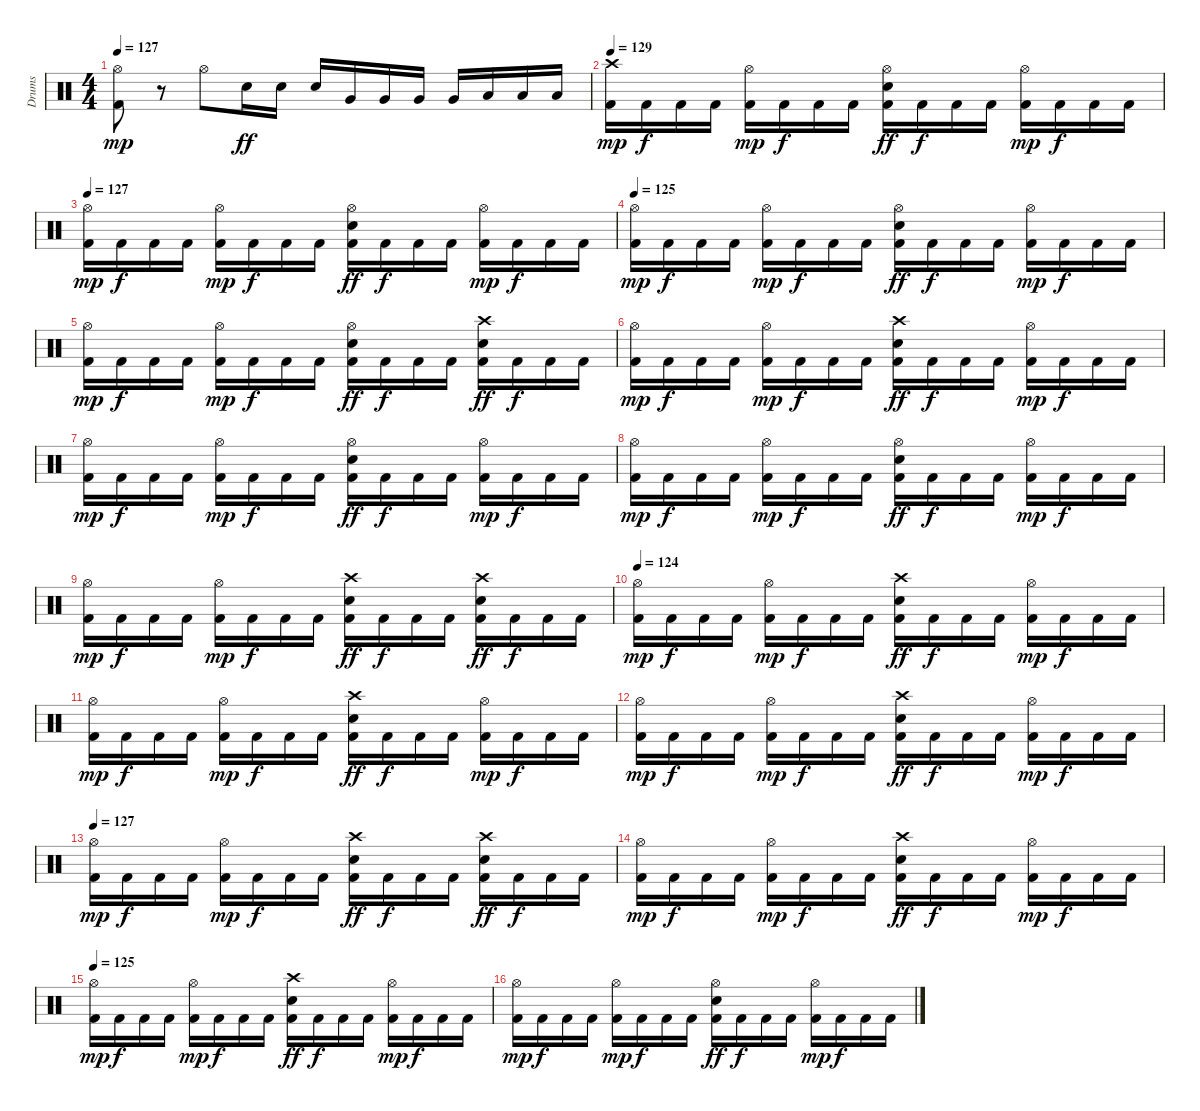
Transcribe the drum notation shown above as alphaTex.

\track ("Drums" "Drums") {instrument percussion}
\staff {score}
\articulation defaults
\ts (4 4)
\tempo 127
\clef neutral
\ks c
("Hi-Hat (open)" "Kick (hit) 2").8{dy mp} r.8 "Hi-Hat (open)".8 "Electric Snare (hit)".16{dy ff} "Electric Snare (hit)".16 "Electric Snare (hit)".16 "Very Low Tom (hit)".16 "Very Low Tom (hit)".16 "Very Low Tom (hit)".16 "Very Low Tom (hit)".16 "Low Floor Tom (hit)".16 "Low Floor Tom (hit)".16 "Low Floor Tom (hit)".16 |
\tempo 129
("Crash high (hit)" "Kick (hit) 2").16{dy mp} "Kick (hit) 2".16{dy f} "Kick (hit) 2".16 "Kick (hit) 2".16 ("Hi-Hat (open)" "Kick (hit) 2").16{dy mp} "Kick (hit) 2".16{dy f} "Kick (hit) 2".16 "Kick (hit) 2".16 ("Hi-Hat (open)" "Electric Snare (hit)" "Kick (hit) 2").16{dy ff} "Kick (hit) 2".16{dy f} "Kick (hit) 2".16 "Kick (hit) 2".16 ("Hi-Hat (open)" "Kick (hit) 2").16{dy mp} "Kick (hit) 2".16{dy f} "Kick (hit) 2".16 "Kick (hit) 2".16 |
\tempo 127
("Hi-Hat (open)" "Kick (hit) 2").16{dy mp} "Kick (hit) 2".16{dy f} "Kick (hit) 2".16 "Kick (hit) 2".16 ("Hi-Hat (open)" "Kick (hit) 2").16{dy mp} "Kick (hit) 2".16{dy f} "Kick (hit) 2".16 "Kick (hit) 2".16 ("Hi-Hat (open)" "Electric Snare (hit)" "Kick (hit) 2").16{dy ff} "Kick (hit) 2".16{dy f} "Kick (hit) 2".16 "Kick (hit) 2".16 ("Hi-Hat (open)" "Kick (hit) 2").16{dy mp} "Kick (hit) 2".16{dy f} "Kick (hit) 2".16 "Kick (hit) 2".16 |
\tempo 125
("Hi-Hat (open)" "Kick (hit) 2").16{dy mp} "Kick (hit) 2".16{dy f} "Kick (hit) 2".16 "Kick (hit) 2".16 ("Hi-Hat (open)" "Kick (hit) 2").16{dy mp} "Kick (hit) 2".16{dy f} "Kick (hit) 2".16 "Kick (hit) 2".16 ("Hi-Hat (open)" "Electric Snare (hit)" "Kick (hit) 2").16{dy ff} "Kick (hit) 2".16{dy f} "Kick (hit) 2".16 "Kick (hit) 2".16 ("Hi-Hat (open)" "Kick (hit) 2").16{dy mp} "Kick (hit) 2".16{dy f} "Kick (hit) 2".16 "Kick (hit) 2".16 |
("Hi-Hat (open)" "Kick (hit) 2").16{dy mp} "Kick (hit) 2".16{dy f} "Kick (hit) 2".16 "Kick (hit) 2".16 ("Hi-Hat (open)" "Kick (hit) 2").16{dy mp} "Kick (hit) 2".16{dy f} "Kick (hit) 2".16 "Kick (hit) 2".16 ("Hi-Hat (open)" "Electric Snare (hit)" "Kick (hit) 2").16{dy ff} "Kick (hit) 2".16{dy f} "Kick (hit) 2".16 "Kick (hit) 2".16 ("Crash high (hit)" "Electric Snare (hit)" "Kick (hit) 2").16{dy ff} "Kick (hit) 2".16{dy f} "Kick (hit) 2".16 "Kick (hit) 2".16 |
("Hi-Hat (open)" "Kick (hit) 2").16{dy mp} "Kick (hit) 2".16{dy f} "Kick (hit) 2".16 "Kick (hit) 2".16 ("Hi-Hat (open)" "Kick (hit) 2").16{dy mp} "Kick (hit) 2".16{dy f} "Kick (hit) 2".16 "Kick (hit) 2".16 ("Crash high (hit)" "Electric Snare (hit)" "Kick (hit) 2").16{dy ff} "Kick (hit) 2".16{dy f} "Kick (hit) 2".16 "Kick (hit) 2".16 ("Hi-Hat (open)" "Kick (hit) 2").16{dy mp} "Kick (hit) 2".16{dy f} "Kick (hit) 2".16 "Kick (hit) 2".16 |
("Hi-Hat (open)" "Kick (hit) 2").16{dy mp} "Kick (hit) 2".16{dy f} "Kick (hit) 2".16 "Kick (hit) 2".16 ("Hi-Hat (open)" "Kick (hit) 2").16{dy mp} "Kick (hit) 2".16{dy f} "Kick (hit) 2".16 "Kick (hit) 2".16 ("Hi-Hat (open)" "Electric Snare (hit)" "Kick (hit) 2").16{dy ff} "Kick (hit) 2".16{dy f} "Kick (hit) 2".16 "Kick (hit) 2".16 ("Hi-Hat (open)" "Kick (hit) 2").16{dy mp} "Kick (hit) 2".16{dy f} "Kick (hit) 2".16 "Kick (hit) 2".16 |
("Hi-Hat (open)" "Kick (hit) 2").16{dy mp} "Kick (hit) 2".16{dy f} "Kick (hit) 2".16 "Kick (hit) 2".16 ("Hi-Hat (open)" "Kick (hit) 2").16{dy mp} "Kick (hit) 2".16{dy f} "Kick (hit) 2".16 "Kick (hit) 2".16 ("Hi-Hat (open)" "Electric Snare (hit)" "Kick (hit) 2").16{dy ff} "Kick (hit) 2".16{dy f} "Kick (hit) 2".16 "Kick (hit) 2".16 ("Hi-Hat (open)" "Kick (hit) 2").16{dy mp} "Kick (hit) 2".16{dy f} "Kick (hit) 2".16 "Kick (hit) 2".16 |
("Hi-Hat (open)" "Kick (hit) 2").16{dy mp} "Kick (hit) 2".16{dy f} "Kick (hit) 2".16 "Kick (hit) 2".16 ("Hi-Hat (open)" "Kick (hit) 2").16{dy mp} "Kick (hit) 2".16{dy f} "Kick (hit) 2".16 "Kick (hit) 2".16 ("Crash high (hit)" "Electric Snare (hit)" "Kick (hit) 2").16{dy ff} "Kick (hit) 2".16{dy f} "Kick (hit) 2".16 "Kick (hit) 2".16 ("Crash high (hit)" "Electric Snare (hit)" "Kick (hit) 2").16{dy ff} "Kick (hit) 2".16{dy f} "Kick (hit) 2".16 "Kick (hit) 2".16 |
\tempo 124
("Hi-Hat (open)" "Kick (hit) 2").16{dy mp} "Kick (hit) 2".16{dy f} "Kick (hit) 2".16 "Kick (hit) 2".16 ("Hi-Hat (open)" "Kick (hit) 2").16{dy mp} "Kick (hit) 2".16{dy f} "Kick (hit) 2".16 "Kick (hit) 2".16 ("Crash high (hit)" "Electric Snare (hit)" "Kick (hit) 2").16{dy ff} "Kick (hit) 2".16{dy f} "Kick (hit) 2".16 "Kick (hit) 2".16 ("Hi-Hat (open)" "Kick (hit) 2").16{dy mp} "Kick (hit) 2".16{dy f} "Kick (hit) 2".16 "Kick (hit) 2".16 |
("Hi-Hat (open)" "Kick (hit) 2").16{dy mp} "Kick (hit) 2".16{dy f} "Kick (hit) 2".16 "Kick (hit) 2".16 ("Hi-Hat (open)" "Kick (hit) 2").16{dy mp} "Kick (hit) 2".16{dy f} "Kick (hit) 2".16 "Kick (hit) 2".16 ("Crash high (hit)" "Electric Snare (hit)" "Kick (hit) 2").16{dy ff} "Kick (hit) 2".16{dy f} "Kick (hit) 2".16 "Kick (hit) 2".16 ("Hi-Hat (open)" "Kick (hit) 2").16{dy mp} "Kick (hit) 2".16{dy f} "Kick (hit) 2".16 "Kick (hit) 2".16 |
("Hi-Hat (open)" "Kick (hit) 2").16{dy mp} "Kick (hit) 2".16{dy f} "Kick (hit) 2".16 "Kick (hit) 2".16 ("Hi-Hat (open)" "Kick (hit) 2").16{dy mp} "Kick (hit) 2".16{dy f} "Kick (hit) 2".16 "Kick (hit) 2".16 ("Crash high (hit)" "Electric Snare (hit)" "Kick (hit) 2").16{dy ff} "Kick (hit) 2".16{dy f} "Kick (hit) 2".16 "Kick (hit) 2".16 ("Hi-Hat (open)" "Kick (hit) 2").16{dy mp} "Kick (hit) 2".16{dy f} "Kick (hit) 2".16 "Kick (hit) 2".16 |
\tempo 127
("Hi-Hat (open)" "Kick (hit) 2").16{dy mp} "Kick (hit) 2".16{dy f} "Kick (hit) 2".16 "Kick (hit) 2".16 ("Hi-Hat (open)" "Kick (hit) 2").16{dy mp} "Kick (hit) 2".16{dy f} "Kick (hit) 2".16 "Kick (hit) 2".16 ("Crash high (hit)" "Electric Snare (hit)" "Kick (hit) 2").16{dy ff} "Kick (hit) 2".16{dy f} "Kick (hit) 2".16 "Kick (hit) 2".16 ("Crash high (hit)" "Electric Snare (hit)" "Kick (hit) 2").16{dy ff} "Kick (hit) 2".16{dy f} "Kick (hit) 2".16 "Kick (hit) 2".16 |
("Hi-Hat (open)" "Kick (hit) 2").16{dy mp} "Kick (hit) 2".16{dy f} "Kick (hit) 2".16 "Kick (hit) 2".16 ("Hi-Hat (open)" "Kick (hit) 2").16{dy mp} "Kick (hit) 2".16{dy f} "Kick (hit) 2".16 "Kick (hit) 2".16 ("Crash high (hit)" "Electric Snare (hit)" "Kick (hit) 2").16{dy ff} "Kick (hit) 2".16{dy f} "Kick (hit) 2".16 "Kick (hit) 2".16 ("Hi-Hat (open)" "Kick (hit) 2").16{dy mp} "Kick (hit) 2".16{dy f} "Kick (hit) 2".16 "Kick (hit) 2".16 |
\tempo 125
("Hi-Hat (open)" "Kick (hit) 2").16{dy mp} "Kick (hit) 2".16{dy f} "Kick (hit) 2".16 "Kick (hit) 2".16 ("Hi-Hat (open)" "Kick (hit) 2").16{dy mp} "Kick (hit) 2".16{dy f} "Kick (hit) 2".16 "Kick (hit) 2".16 ("Crash high (hit)" "Electric Snare (hit)" "Kick (hit) 2").16{dy ff} "Kick (hit) 2".16{dy f} "Kick (hit) 2".16 "Kick (hit) 2".16 ("Hi-Hat (open)" "Kick (hit) 2").16{dy mp} "Kick (hit) 2".16{dy f} "Kick (hit) 2".16 "Kick (hit) 2".16 |
("Hi-Hat (open)" "Kick (hit) 2").16{dy mp} "Kick (hit) 2".16{dy f} "Kick (hit) 2".16 "Kick (hit) 2".16 ("Hi-Hat (open)" "Kick (hit) 2").16{dy mp} "Kick (hit) 2".16{dy f} "Kick (hit) 2".16 "Kick (hit) 2".16 ("Hi-Hat (open)" "Electric Snare (hit)" "Kick (hit) 2").16{dy ff} "Kick (hit) 2".16{dy f} "Kick (hit) 2".16 "Kick (hit) 2".16 ("Hi-Hat (open)" "Kick (hit) 2").16{dy mp} "Kick (hit) 2".16{dy f} "Kick (hit) 2".16 "Kick (hit) 2".16
